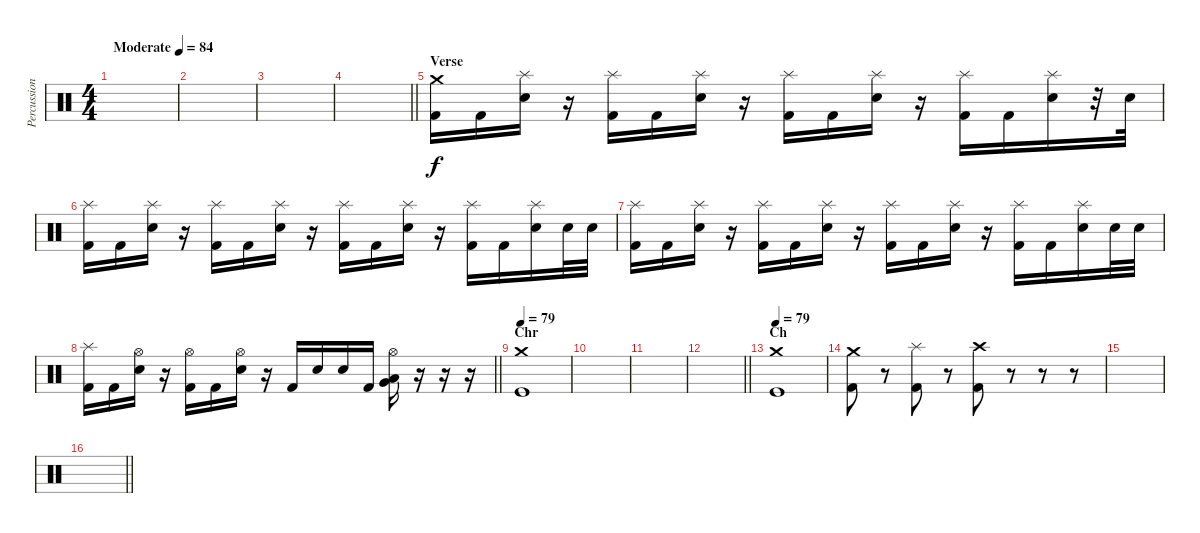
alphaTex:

\track ("Percussion" "Percussion") {instrument percussion}
\staff {score}
\articulation defaults
\ts (4 4)
\tempo (84 "Moderate")
\clef neutral
\ks c
|
|
|
\barLineRight lightlight
|
\section ("" "Verse")
("Crash medium (hit)" "Kick (hit) 2").16 "Kick (hit) 2".16 ("Splash (hit)" "Electric Snare (hit)").16 r.16 ("Splash (hit)" "Kick (hit) 2").16 "Kick (hit) 2".16 ("Splash (hit)" "Electric Snare (hit)").16 r.16 ("Splash (hit)" "Kick (hit) 2").16 "Kick (hit) 2".16 ("Splash (hit)" "Electric Snare (hit)").16 r.16 ("Splash (hit)" "Kick (hit) 2").16 "Kick (hit) 2".16 ("Splash (hit)" "Electric Snare (hit)").16 r.32 "Electric Snare (hit)".32 |
("Splash (hit)" "Kick (hit) 2").16 "Kick (hit) 2".16 ("Splash (hit)" "Electric Snare (hit)").16 r.16 ("Splash (hit)" "Kick (hit) 2").16 "Kick (hit) 2".16 ("Splash (hit)" "Electric Snare (hit)").16 r.16 ("Splash (hit)" "Kick (hit) 2").16 "Kick (hit) 2".16 ("Splash (hit)" "Electric Snare (hit)").16 r.16 ("Splash (hit)" "Kick (hit) 2").16 "Kick (hit) 2".16 ("Splash (hit)" "Electric Snare (hit)").16 "Electric Snare (hit)".32 "Electric Snare (hit)".32 |
("Splash (hit)" "Kick (hit) 2").16 "Kick (hit) 2".16 ("Splash (hit)" "Electric Snare (hit)").16 r.16 ("Splash (hit)" "Kick (hit) 2").16 "Kick (hit) 2".16 ("Splash (hit)" "Electric Snare (hit)").16 r.16 ("Splash (hit)" "Kick (hit) 2").16 "Kick (hit) 2".16 ("Splash (hit)" "Electric Snare (hit)").16 r.16 ("Splash (hit)" "Kick (hit) 2").16 "Kick (hit) 2".16 ("Splash (hit)" "Electric Snare (hit)").16 "Electric Snare (hit)".32 "Electric Snare (hit)".32 |
\barLineRight lightlight
("Splash (hit)" "Kick (hit) 2").16 "Kick (hit) 2".16 ("Hi-Hat (open)" "Electric Snare (hit)").16 r.16 ("Hi-Hat (open)" "Kick (hit) 2").16 "Kick (hit) 2".16 ("Hi-Hat (open)" "Electric Snare (hit)").16 r.16 "Kick (hit) 2".16 "Electric Snare (hit)".16 "Electric Snare (hit)".16 "Kick (hit) 2".16 ("Hi-Hat (open)" "Very Low Tom (hit)" "Low Floor Tom (hit)").16 r.16 r.16 r.16 |
\section ("" "Chr")
\tempo 79
("Crash medium (hit)" "Kick (hit)").1 |
|
|
\barLineRight lightlight
|
\section ("" "Ch")
\tempo 79
("Crash medium (hit)" "Kick (hit)").1 |
("Crash medium (hit)" "Kick (hit) 2").8 r.8 ("Splash (hit)" "Kick (hit) 2").8 r.8 ("Crash high (hit)" "Kick (hit) 2").8 r.8 r.8 r.8 |
|
\barLineRight lightlight
